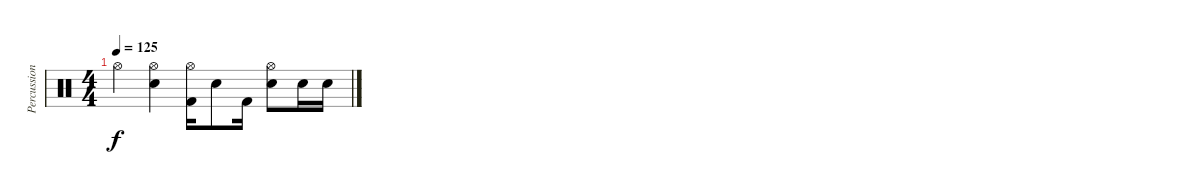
\track ("Percussion" "Percussion") {instrument percussion}
\staff {score}
\articulation defaults
\ts (4 4)
\tempo 125
\clef neutral
\ks c "Hi-Hat (open)".4{dy f}
("Hi-Hat (open)" "Electric Snare (hit)").4 ("Hi-Hat (open)" "Kick (hit) 2").16 "Electric Snare (hit)".8 "Kick (hit) 2".16 ("Hi-Hat (open)" "Electric Snare (hit)").8 "Electric Snare (hit)".16 "Electric Snare (hit)".16
